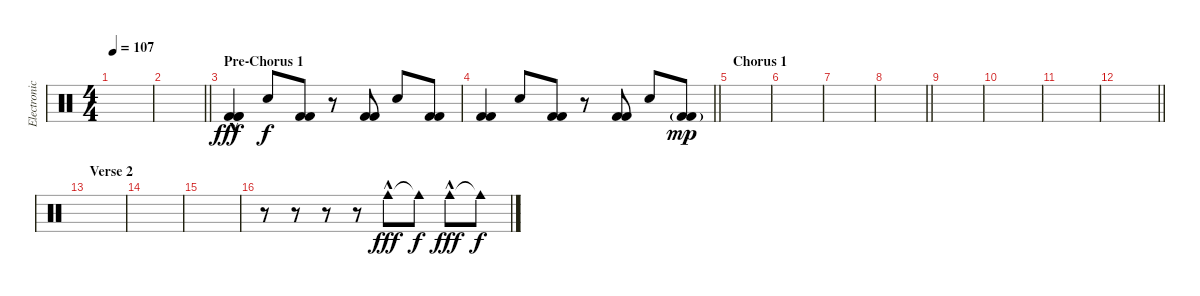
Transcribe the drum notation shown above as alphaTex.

\track ("Electronic Drums" "Electronic") {instrument percussion}
\staff {score}
\articulation defaults
\ts (4 4)
\tempo 107
\clef neutral
\ks c
|
\barLineRight lightlight
|
\section ("" "Pre-Chorus 1")
("Kick (hit) 2"{hac} "Kick (hit) 2"{hac} "Kick (hit) 2"{hac}).4{dy fff} "Hand Clap (hit)".8{dy f} ("Kick (hit) 2" "Kick (hit) 2").8 r.8 ("Kick (hit) 2" "Kick (hit) 2").8 "Hand Clap (hit)".8 ("Kick (hit) 2" "Kick (hit) 2").8 |
\barLineRight lightlight
("Kick (hit) 2" "Kick (hit) 2").4 "Hand Clap (hit)".8 ("Kick (hit) 2" "Kick (hit) 2").8 r.8 ("Kick (hit) 2" "Kick (hit) 2").8 "Hand Clap (hit)".8 ("Kick (hit) 2"{g} "Kick (hit) 2"{g}).8{dy mp} |
\section ("" "Chorus 1")
|
|
|
\barLineRight lightlight
|
|
|
|
\barLineRight lightlight
|
\section ("" "Verse 2")
|
|
|
r.8 r.8 r.8 r.8 "Cowbell medium (hit)"{hac}.8{dy fff} "Cowbell medium (hit)"{t}.8{dy f} "Cowbell medium (hit)"{hac}.8{dy fff} "Cowbell medium (hit)"{t}.8{dy f}
